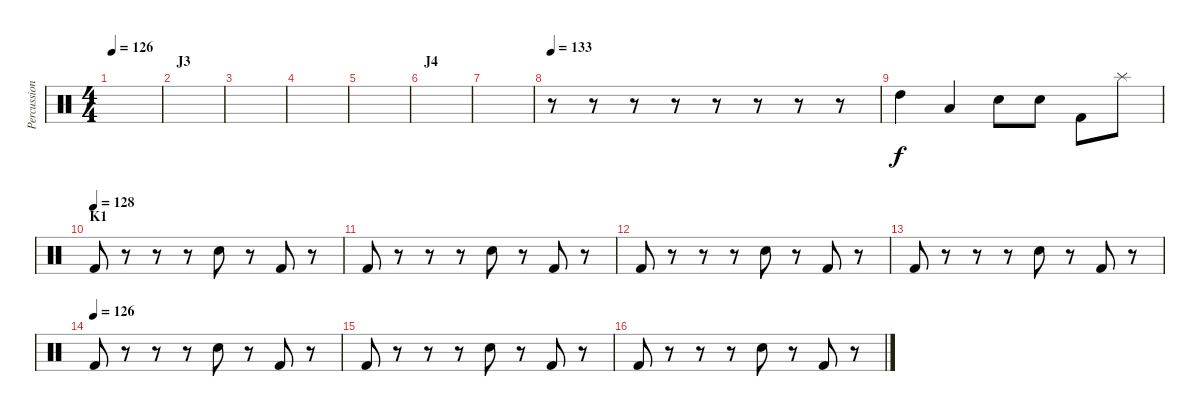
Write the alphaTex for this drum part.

\track ("Percussion" "Percussion") {instrument percussion}
\staff {score}
\articulation defaults
\ts (4 4)
\tempo 126
\clef neutral
\ks c
|
\section ("" "J3")
|
|
|
|
\section ("" "J4")
|
|
\tempo 133
r.8 r.8 r.8 r.8 r.8 r.8 r.8 r.8 |
"High Tom (hit)".4 "Low Tom (hit)".4 "Electric Snare (hit)".8 "Electric Snare (hit)".8 "Kick (hit) 2".8 "Splash (hit)".8 |
\section ("" "K1")
\tempo (128)
"Kick (hit) 2".8 r.8 r.8 r.8 "Electric Snare (hit)".8 r.8 "Kick (hit) 2".8 r.8 |
"Kick (hit) 2".8 r.8 r.8 r.8 "Electric Snare (hit)".8 r.8 "Kick (hit) 2".8 r.8 |
"Kick (hit) 2".8 r.8 r.8 r.8 "Electric Snare (hit)".8 r.8 "Kick (hit) 2".8 r.8 |
"Kick (hit) 2".8 r.8 r.8 r.8 "Electric Snare (hit)".8 r.8 "Kick (hit) 2".8 r.8 |
\tempo (126)
"Kick (hit) 2".8 r.8 r.8 r.8 "Electric Snare (hit)".8 r.8 "Kick (hit) 2".8 r.8 |
"Kick (hit) 2".8 r.8 r.8 r.8 "Electric Snare (hit)".8 r.8 "Kick (hit) 2".8 r.8 |
"Kick (hit) 2".8 r.8 r.8 r.8 "Electric Snare (hit)".8 r.8 "Kick (hit) 2".8 r.8
